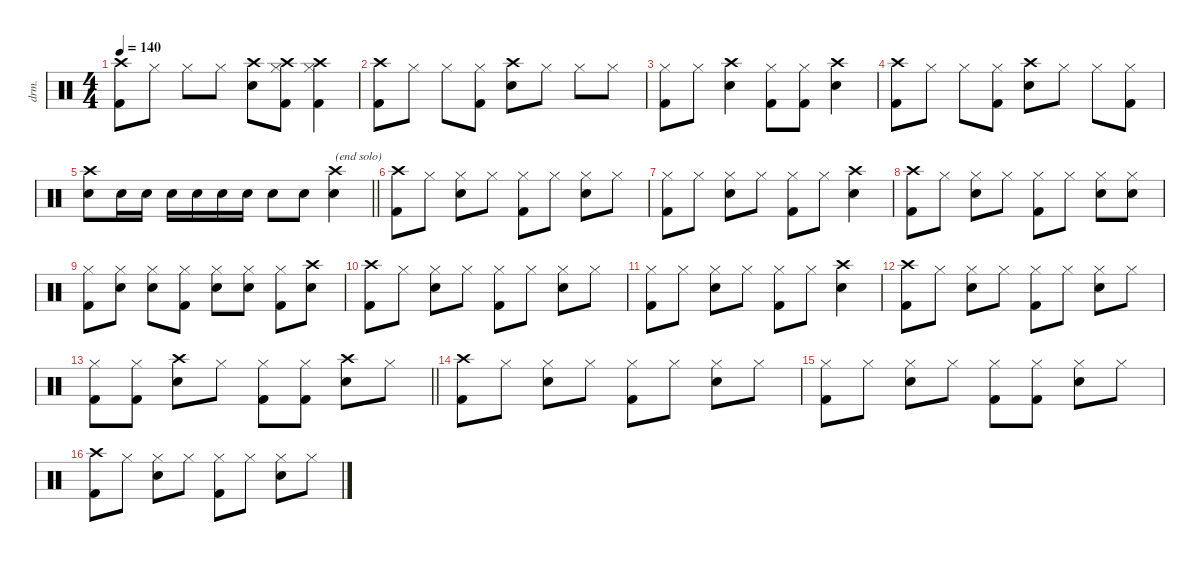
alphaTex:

\defaultSystemsLayout 4
\hideDynamics
\bracketExtendMode nobrackets
\otherSystemsTrackNameOrientation horizontal
\track ("Drums" "drm.") {defaultSystemsLayout 4 instrument percussion}
\staff {score}
\articulation defaults
\ts (4 4)
\tempo 140
\clef neutral
\ks c
("Crash high (hit)" "Kick (hit) 2").8{dy f beam Down} "Hi-Hat (closed)".8{beam Down} "Hi-Hat (closed)".8{beam Down} "Hi-Hat (closed)".8{beam Down} ("Crash high (hit)" "Snare (hit) 2").8{beam Down} ("Crash high (hit)" "Hi-Hat (closed)" "Kick (hit) 2").8{beam Down} ("Crash high (hit)" "Hi-Hat (closed)" "Kick (hit) 2").4{beam Down} |
("Crash high (hit)" "Kick (hit) 2").8{beam Down} "Hi-Hat (closed)".8{beam Down} "Hi-Hat (closed)".8{beam Down} ("Hi-Hat (closed)" "Kick (hit) 2").8{beam Down} ("Crash high (hit)" "Snare (hit) 2").8{beam Down} "Hi-Hat (closed)".8{beam Down} "Hi-Hat (closed)".8{beam Down} "Hi-Hat (closed)".8{beam Down} |
("Hi-Hat (closed)" "Kick (hit) 2").8{beam Down} "Hi-Hat (closed)".8{beam Down} ("Crash high (hit)" "Snare (hit) 2").4{beam Down} ("Hi-Hat (closed)" "Kick (hit) 2").8{beam Down} ("Hi-Hat (closed)" "Kick (hit) 2").8{beam Down} ("Crash high (hit)" "Snare (hit) 2").4{beam Down} |
("Crash high (hit)" "Kick (hit) 2").8{beam Down} "Hi-Hat (closed)".8{beam Down} "Hi-Hat (closed)".8{beam Down} ("Hi-Hat (closed)" "Kick (hit) 2").8{beam Down} ("Crash high (hit)" "Snare (hit) 2").8{beam Down} "Hi-Hat (closed)".8{beam Down} "Hi-Hat (closed)".8{beam Down} ("Hi-Hat (closed)" "Kick (hit) 2").8{beam Down} |
\barLineRight lightlight
("Crash high (hit)" "Snare (hit) 2").8{beam Down} "Snare (hit) 2".16{beam Down} "Snare (hit) 2".16{beam Down} "Snare (hit) 2".16{beam Down} "Snare (hit) 2".16{beam Down} "Snare (hit) 2".16{beam Down} "Snare (hit) 2".16{beam Down} "Snare (hit) 2".8{beam Down} "Snare (hit) 2".8{beam Down} ("Crash high (hit)" "Snare (hit) 2").4{txt "(end solo)" beam Down} |
("Crash high (hit)" "Kick (hit) 2").8{beam Down} "Hi-Hat (closed)".8{beam Down} ("Hi-Hat (closed)" "Snare (hit) 2").8{beam Down} "Hi-Hat (closed)".8{beam Down} ("Hi-Hat (closed)" "Kick (hit) 2").8{beam Down} "Hi-Hat (closed)".8{beam Down} ("Hi-Hat (closed)" "Snare (hit) 2").8{beam Down} "Hi-Hat (closed)".8{beam Down} |
("Hi-Hat (closed)" "Kick (hit) 2").8{beam Down} "Hi-Hat (closed)".8{beam Down} ("Hi-Hat (closed)" "Snare (hit) 2").8{beam Down} "Hi-Hat (closed)".8{beam Down} ("Hi-Hat (closed)" "Kick (hit) 2").8{beam Down} "Hi-Hat (closed)".8{beam Down} ("Crash high (hit)" "Snare (hit) 2").4{beam Down} |
("Crash high (hit)" "Kick (hit) 2").8{beam Down} "Hi-Hat (closed)".8{beam Down} ("Hi-Hat (closed)" "Snare (hit) 2").8{beam Down} "Hi-Hat (closed)".8{beam Down} ("Hi-Hat (closed)" "Kick (hit) 2").8{beam Down} "Hi-Hat (closed)".8{beam Down} ("Hi-Hat (closed)" "Snare (hit) 2").8{beam Down} ("Hi-Hat (closed)" "Snare (hit) 2").8{beam Down} |
("Hi-Hat (closed)" "Kick (hit) 2").8{beam Down} ("Hi-Hat (closed)" "Snare (hit) 2").8{beam Down} ("Hi-Hat (closed)" "Snare (hit) 2").8{beam Down} ("Hi-Hat (closed)" "Kick (hit) 2").8{beam Down} ("Hi-Hat (closed)" "Snare (hit) 2").8{beam Down} ("Hi-Hat (closed)" "Snare (hit) 2").8{beam Down} ("Hi-Hat (closed)" "Kick (hit) 2").8{beam Down} ("Crash high (hit)" "Snare (hit) 2").8{beam Down} |
("Crash high (hit)" "Kick (hit) 2").8{beam Down} "Hi-Hat (closed)".8{beam Down} ("Hi-Hat (closed)" "Snare (hit) 2").8{beam Down} "Hi-Hat (closed)".8{beam Down} ("Hi-Hat (closed)" "Kick (hit) 2").8{beam Down} "Hi-Hat (closed)".8{beam Down} ("Hi-Hat (closed)" "Snare (hit) 2").8{beam Down} "Hi-Hat (closed)".8{beam Down} |
("Hi-Hat (closed)" "Kick (hit) 2").8{beam Down} "Hi-Hat (closed)".8{beam Down} ("Hi-Hat (closed)" "Snare (hit) 2").8{beam Down} "Hi-Hat (closed)".8{beam Down} ("Hi-Hat (closed)" "Kick (hit) 2").8{beam Down} "Hi-Hat (closed)".8{beam Down} ("Crash high (hit)" "Snare (hit) 2").4{beam Down} |
("Crash high (hit)" "Kick (hit) 2").8{beam Down} "Hi-Hat (closed)".8{beam Down} ("Hi-Hat (closed)" "Snare (hit) 2").8{beam Down} "Hi-Hat (closed)".8{beam Down} ("Hi-Hat (closed)" "Kick (hit) 2").8{beam Down} "Hi-Hat (closed)".8{beam Down} ("Hi-Hat (closed)" "Snare (hit) 2").8{beam Down} "Hi-Hat (closed)".8{beam Down} |
\barLineRight lightlight
("Hi-Hat (closed)" "Kick (hit) 2").8{beam Down} ("Hi-Hat (closed)" "Kick (hit) 2").8{beam Down} ("Crash high (hit)" "Snare (hit) 2").8{beam Down} "Hi-Hat (closed)".8{beam Down} ("Hi-Hat (closed)" "Kick (hit) 2").8{beam Down} ("Hi-Hat (closed)" "Kick (hit) 2").8{beam Down} ("Crash high (hit)" "Snare (hit) 2").8{beam Down} "Hi-Hat (closed)".8{beam Down} |
("Crash high (hit)" "Kick (hit) 2").8{beam Down} "Hi-Hat (closed)".8{beam Down} ("Hi-Hat (closed)" "Snare (hit) 2").8{beam Down} "Hi-Hat (closed)".8{beam Down} ("Hi-Hat (closed)" "Kick (hit) 2").8{beam Down} "Hi-Hat (closed)".8{beam Down} ("Hi-Hat (closed)" "Snare (hit) 2").8{beam Down} "Hi-Hat (closed)".8{beam Down} |
("Hi-Hat (closed)" "Kick (hit) 2").8{beam Down} "Hi-Hat (closed)".8{beam Down} ("Hi-Hat (closed)" "Snare (hit) 2").8{beam Down} "Hi-Hat (closed)".8{beam Down} ("Hi-Hat (closed)" "Kick (hit) 2").8{beam Down} ("Hi-Hat (closed)" "Kick (hit) 2").8{beam Down} ("Hi-Hat (closed)" "Snare (hit) 2").8{beam Down} "Hi-Hat (closed)".8{beam Down} |
("Crash high (hit)" "Kick (hit) 2").8{beam Down} "Hi-Hat (closed)".8{beam Down} ("Hi-Hat (closed)" "Snare (hit) 2").8{beam Down} "Hi-Hat (closed)".8{beam Down} ("Hi-Hat (closed)" "Kick (hit) 2").8{beam Down} "Hi-Hat (closed)".8{beam Down} ("Hi-Hat (closed)" "Snare (hit) 2").8{beam Down} "Hi-Hat (closed)".8{beam Down}
